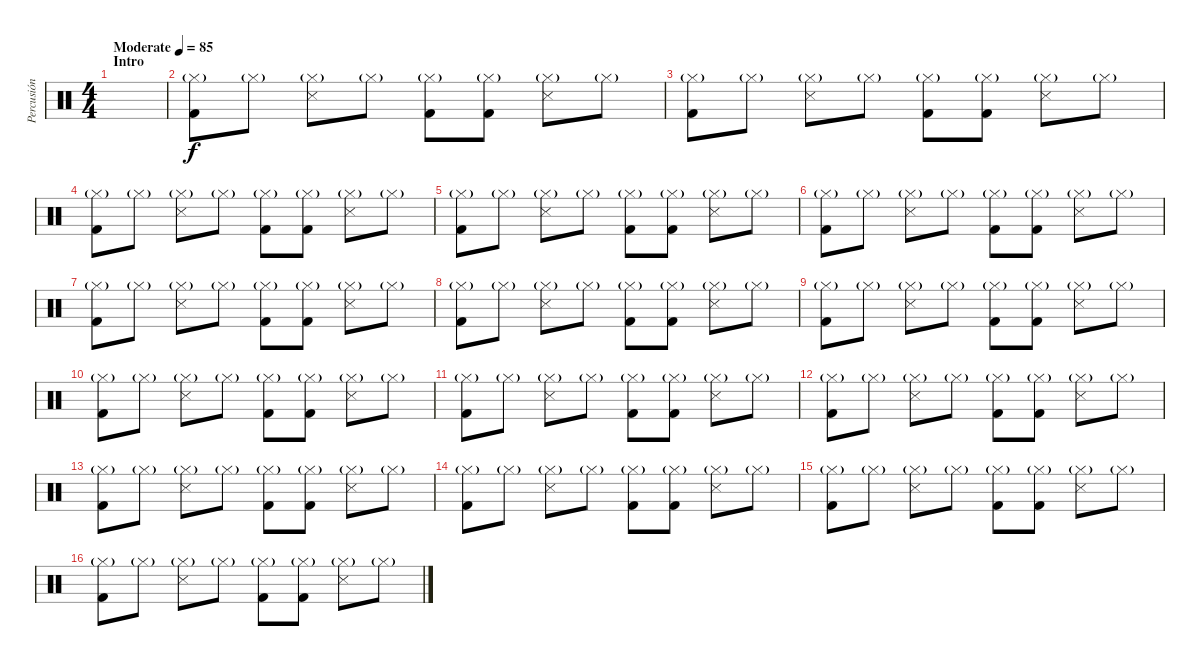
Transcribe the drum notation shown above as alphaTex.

\track ("Percusión" "Percusión") {instrument percussion}
\staff {score}
\articulation defaults
\ts (4 4)
\section ("" "Intro")
\tempo (85 "Moderate")
\clef neutral
\ks c
|
("Hi-Hat (closed)"{g} "Kick (hit) 2").8 "Hi-Hat (closed)"{g}.8 ("Hi-Hat (closed)"{g} "Snare (side stick) 3").8 "Hi-Hat (closed)"{g}.8 ("Hi-Hat (closed)"{g} "Kick (hit) 2").8 ("Hi-Hat (closed)"{g} "Kick (hit) 2").8 ("Hi-Hat (closed)"{g} "Snare (side stick) 3").8 "Hi-Hat (closed)"{g}.8 |
("Hi-Hat (closed)"{g} "Kick (hit) 2").8 "Hi-Hat (closed)"{g}.8 ("Hi-Hat (closed)"{g} "Snare (side stick) 3").8 "Hi-Hat (closed)"{g}.8 ("Hi-Hat (closed)"{g} "Kick (hit) 2").8 ("Hi-Hat (closed)"{g} "Kick (hit) 2").8 ("Hi-Hat (closed)"{g} "Snare (side stick) 3").8 "Hi-Hat (closed)"{g}.8 |
("Hi-Hat (closed)"{g} "Kick (hit) 2").8 "Hi-Hat (closed)"{g}.8 ("Hi-Hat (closed)"{g} "Snare (side stick) 3").8 "Hi-Hat (closed)"{g}.8 ("Hi-Hat (closed)"{g} "Kick (hit) 2").8 ("Hi-Hat (closed)"{g} "Kick (hit) 2").8 ("Hi-Hat (closed)"{g} "Snare (side stick) 3").8 "Hi-Hat (closed)"{g}.8 |
("Hi-Hat (closed)"{g} "Kick (hit) 2").8 "Hi-Hat (closed)"{g}.8 ("Hi-Hat (closed)"{g} "Snare (side stick) 3").8 "Hi-Hat (closed)"{g}.8 ("Hi-Hat (closed)"{g} "Kick (hit) 2").8 ("Hi-Hat (closed)"{g} "Kick (hit) 2").8 ("Hi-Hat (closed)"{g} "Snare (side stick) 3").8 "Hi-Hat (closed)"{g}.8 |
("Hi-Hat (closed)"{g} "Kick (hit) 2").8 "Hi-Hat (closed)"{g}.8 ("Hi-Hat (closed)"{g} "Snare (side stick) 3").8 "Hi-Hat (closed)"{g}.8 ("Hi-Hat (closed)"{g} "Kick (hit) 2").8 ("Hi-Hat (closed)"{g} "Kick (hit) 2").8 ("Hi-Hat (closed)"{g} "Snare (side stick) 3").8 "Hi-Hat (closed)"{g}.8 |
("Hi-Hat (closed)"{g} "Kick (hit) 2").8 "Hi-Hat (closed)"{g}.8 ("Hi-Hat (closed)"{g} "Snare (side stick) 3").8 "Hi-Hat (closed)"{g}.8 ("Hi-Hat (closed)"{g} "Kick (hit) 2").8 ("Hi-Hat (closed)"{g} "Kick (hit) 2").8 ("Hi-Hat (closed)"{g} "Snare (side stick) 3").8 "Hi-Hat (closed)"{g}.8 |
("Hi-Hat (closed)"{g} "Kick (hit) 2").8 "Hi-Hat (closed)"{g}.8 ("Hi-Hat (closed)"{g} "Snare (side stick) 3").8 "Hi-Hat (closed)"{g}.8 ("Hi-Hat (closed)"{g} "Kick (hit) 2").8 ("Hi-Hat (closed)"{g} "Kick (hit) 2").8 ("Hi-Hat (closed)"{g} "Snare (side stick) 3").8 "Hi-Hat (closed)"{g}.8 |
("Hi-Hat (closed)"{g} "Kick (hit) 2").8 "Hi-Hat (closed)"{g}.8 ("Hi-Hat (closed)"{g} "Snare (side stick) 3").8 "Hi-Hat (closed)"{g}.8 ("Hi-Hat (closed)"{g} "Kick (hit) 2").8 ("Hi-Hat (closed)"{g} "Kick (hit) 2").8 ("Hi-Hat (closed)"{g} "Snare (side stick) 3").8 "Hi-Hat (closed)"{g}.8 |
("Hi-Hat (closed)"{g} "Kick (hit) 2").8 "Hi-Hat (closed)"{g}.8 ("Hi-Hat (closed)"{g} "Snare (side stick) 3").8 "Hi-Hat (closed)"{g}.8 ("Hi-Hat (closed)"{g} "Kick (hit) 2").8 ("Hi-Hat (closed)"{g} "Kick (hit) 2").8 ("Hi-Hat (closed)"{g} "Snare (side stick) 3").8 "Hi-Hat (closed)"{g}.8 |
("Hi-Hat (closed)"{g} "Kick (hit) 2").8 "Hi-Hat (closed)"{g}.8 ("Hi-Hat (closed)"{g} "Snare (side stick) 3").8 "Hi-Hat (closed)"{g}.8 ("Hi-Hat (closed)"{g} "Kick (hit) 2").8 ("Hi-Hat (closed)"{g} "Kick (hit) 2").8 ("Hi-Hat (closed)"{g} "Snare (side stick) 3").8 "Hi-Hat (closed)"{g}.8 |
("Hi-Hat (closed)"{g} "Kick (hit) 2").8 "Hi-Hat (closed)"{g}.8 ("Hi-Hat (closed)"{g} "Snare (side stick) 3").8 "Hi-Hat (closed)"{g}.8 ("Hi-Hat (closed)"{g} "Kick (hit) 2").8 ("Hi-Hat (closed)"{g} "Kick (hit) 2").8 ("Hi-Hat (closed)"{g} "Snare (side stick) 3").8 "Hi-Hat (closed)"{g}.8 |
("Hi-Hat (closed)"{g} "Kick (hit) 2").8 "Hi-Hat (closed)"{g}.8 ("Hi-Hat (closed)"{g} "Snare (side stick) 3").8 "Hi-Hat (closed)"{g}.8 ("Hi-Hat (closed)"{g} "Kick (hit) 2").8 ("Hi-Hat (closed)"{g} "Kick (hit) 2").8 ("Hi-Hat (closed)"{g} "Snare (side stick) 3").8 "Hi-Hat (closed)"{g}.8 |
("Hi-Hat (closed)"{g} "Kick (hit) 2").8 "Hi-Hat (closed)"{g}.8 ("Hi-Hat (closed)"{g} "Snare (side stick) 3").8 "Hi-Hat (closed)"{g}.8 ("Hi-Hat (closed)"{g} "Kick (hit) 2").8 ("Hi-Hat (closed)"{g} "Kick (hit) 2").8 ("Hi-Hat (closed)"{g} "Snare (side stick) 3").8 "Hi-Hat (closed)"{g}.8 |
("Hi-Hat (closed)"{g} "Kick (hit) 2").8 "Hi-Hat (closed)"{g}.8 ("Hi-Hat (closed)"{g} "Snare (side stick) 3").8 "Hi-Hat (closed)"{g}.8 ("Hi-Hat (closed)"{g} "Kick (hit) 2").8 ("Hi-Hat (closed)"{g} "Kick (hit) 2").8 ("Hi-Hat (closed)"{g} "Snare (side stick) 3").8 "Hi-Hat (closed)"{g}.8 |
("Hi-Hat (closed)"{g} "Kick (hit) 2").8 "Hi-Hat (closed)"{g}.8 ("Hi-Hat (closed)"{g} "Snare (side stick) 3").8 "Hi-Hat (closed)"{g}.8 ("Hi-Hat (closed)"{g} "Kick (hit) 2").8 ("Hi-Hat (closed)"{g} "Kick (hit) 2").8 ("Hi-Hat (closed)"{g} "Snare (side stick) 3").8 "Hi-Hat (closed)"{g}.8
